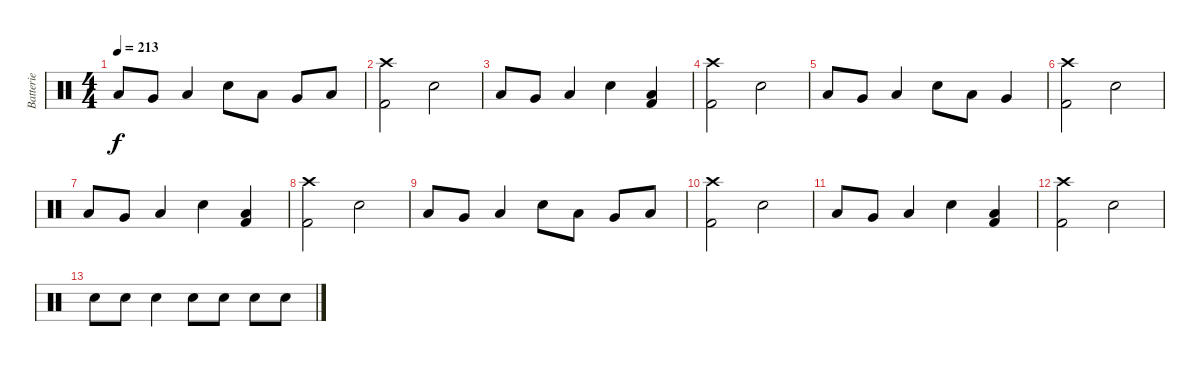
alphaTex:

\track ("Batterie" "Batterie") {instrument percussion}
\staff {score}
\articulation defaults
\ts (4 4)
\tempo 213
\clef neutral
\ks c "Low Tom (hit)".8{dy f} "Very Low Tom (hit)".8 "Low Floor Tom (hit)".4 "Electric Snare (hit)".8 "Low Tom (hit)".8 "Very Low Tom (hit)".8 "Low Floor Tom (hit)".8
|
("Crash high (hit)" "Kick (hit) 2").2 "Electric Snare (hit)".2 |
"Low Tom (hit)".8 "Very Low Tom (hit)".8 "Low Floor Tom (hit)".4 "Electric Snare (hit)".4 ("Kick (hit) 2" "Low Floor Tom (hit)").4 |
("Crash high (hit)" "Kick (hit) 2").2 "Electric Snare (hit)".2 |
"Low Tom (hit)".8 "Very Low Tom (hit)".8 "Low Floor Tom (hit)".4 "Electric Snare (hit)".8 "Low Tom (hit)".8 "Very Low Tom (hit)".4 |
("Crash high (hit)" "Kick (hit) 2").2 "Electric Snare (hit)".2 |
"Low Tom (hit)".8 "Very Low Tom (hit)".8 "Low Floor Tom (hit)".4 "Electric Snare (hit)".4 ("Kick (hit) 2" "Low Floor Tom (hit)").4 |
("Crash high (hit)" "Kick (hit) 2").2 "Electric Snare (hit)".2 |
"Low Tom (hit)".8 "Very Low Tom (hit)".8 "Low Floor Tom (hit)".4 "Electric Snare (hit)".8 "Low Tom (hit)".8 "Very Low Tom (hit)".8 "Low Floor Tom (hit)".8 |
("Crash high (hit)" "Kick (hit) 2").2 "Electric Snare (hit)".2 |
"Low Tom (hit)".8 "Very Low Tom (hit)".8 "Low Floor Tom (hit)".4 "Electric Snare (hit)".4 ("Kick (hit) 2" "Low Floor Tom (hit)").4 |
("Crash high (hit)" "Kick (hit) 2").2 "Electric Snare (hit)".2 |
"Electric Snare (hit)".8 "Electric Snare (hit)".8 "Electric Snare (hit)".4 "Electric Snare (hit)".8 "Electric Snare (hit)".8 "Electric Snare (hit)".8 "Electric Snare (hit)".8
